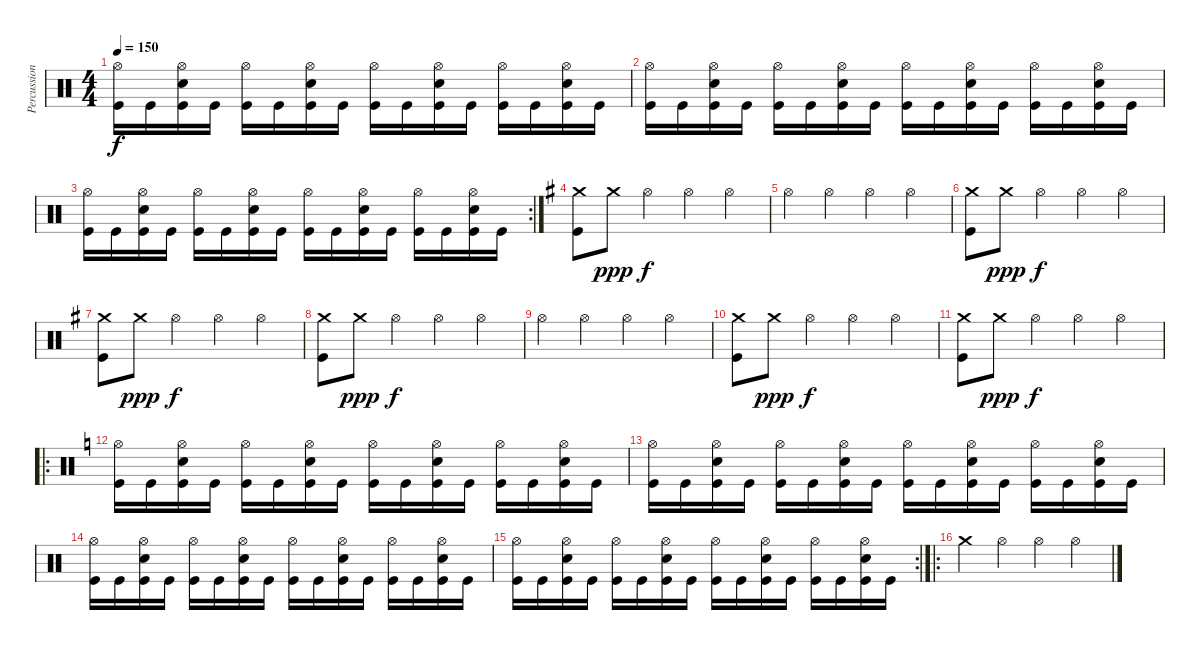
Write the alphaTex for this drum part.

\track ("Percussion" "Percussion") {instrument percussion}
\staff {score}
\articulation defaults
\ts (4 4)
\tempo 150
\clef neutral
\ks c
("Hi-Hat (open)" "Kick (hit)").16{dy f} "Kick (hit)".16 ("Hi-Hat (open)" "Snare (hit) 2" "Kick (hit)").16 "Kick (hit)".16 ("Hi-Hat (open)" "Kick (hit)").16 "Kick (hit)".16 ("Hi-Hat (open)" "Snare (hit) 2" "Kick (hit)").16 "Kick (hit)".16 ("Hi-Hat (open)" "Kick (hit)").16 "Kick (hit)".16 ("Hi-Hat (open)" "Snare (hit) 2" "Kick (hit)").16 "Kick (hit)".16 ("Hi-Hat (open)" "Kick (hit)").16 "Kick (hit)".16 ("Hi-Hat (open)" "Snare (hit) 2" "Kick (hit)").16 "Kick (hit)".16 |
("Hi-Hat (open)" "Kick (hit)").16 "Kick (hit)".16 ("Hi-Hat (open)" "Snare (hit) 2" "Kick (hit)").16 "Kick (hit)".16 ("Hi-Hat (open)" "Kick (hit)").16 "Kick (hit)".16 ("Hi-Hat (open)" "Snare (hit) 2" "Kick (hit)").16 "Kick (hit)".16 ("Hi-Hat (open)" "Kick (hit)").16 "Kick (hit)".16 ("Hi-Hat (open)" "Snare (hit) 2" "Kick (hit)").16 "Kick (hit)".16 ("Hi-Hat (open)" "Kick (hit)").16 "Kick (hit)".16 ("Hi-Hat (open)" "Snare (hit) 2" "Kick (hit)").16 "Kick (hit)".16 |
\rc 2
("Hi-Hat (open)" "Kick (hit)").16 "Kick (hit)".16 ("Hi-Hat (open)" "Snare (hit) 2" "Kick (hit)").16 "Kick (hit)".16 ("Hi-Hat (open)" "Kick (hit)").16 "Kick (hit)".16 ("Hi-Hat (open)" "Snare (hit) 2" "Kick (hit)").16 "Kick (hit)".16 ("Hi-Hat (open)" "Kick (hit)").16 "Kick (hit)".16 ("Hi-Hat (open)" "Snare (hit) 2" "Kick (hit)").16 "Kick (hit)".16 ("Hi-Hat (open)" "Kick (hit)").16 "Kick (hit)".16 ("Hi-Hat (open)" "Snare (hit) 2" "Kick (hit)").16 "Kick (hit)".16 |
\ks g
("Crash medium (hit)" "Kick (hit)").8 "Crash medium (hit)".8{dy ppp} "Hi-Hat (open)".4{dy f} "Hi-Hat (open)".4 "Hi-Hat (open)".4 |
"Hi-Hat (open)".4 "Hi-Hat (open)".4 "Hi-Hat (open)".4 "Hi-Hat (open)".4 |
("Crash medium (hit)" "Kick (hit)").8 "Crash medium (hit)".8{dy ppp} "Hi-Hat (open)".4{dy f} "Hi-Hat (open)".4 "Hi-Hat (open)".4 |
("Crash medium (hit)" "Kick (hit)").8 "Crash medium (hit)".8{dy ppp} "Hi-Hat (open)".4{dy f} "Hi-Hat (open)".4 "Hi-Hat (open)".4 |
("Crash medium (hit)" "Kick (hit)").8 "Crash medium (hit)".8{dy ppp} "Hi-Hat (open)".4{dy f} "Hi-Hat (open)".4 "Hi-Hat (open)".4 |
"Hi-Hat (open)".4 "Hi-Hat (open)".4 "Hi-Hat (open)".4 "Hi-Hat (open)".4 |
("Crash medium (hit)" "Kick (hit)").8 "Crash medium (hit)".8{dy ppp} "Hi-Hat (open)".4{dy f} "Hi-Hat (open)".4 "Hi-Hat (open)".4 |
("Crash medium (hit)" "Kick (hit)").8 "Crash medium (hit)".8{dy ppp} "Hi-Hat (open)".4{dy f} "Hi-Hat (open)".4 "Hi-Hat (open)".4 |
\ro
\ks c
("Hi-Hat (open)" "Kick (hit)").16 "Kick (hit)".16 ("Hi-Hat (open)" "Snare (hit) 2" "Kick (hit)").16 "Kick (hit)".16 ("Hi-Hat (open)" "Kick (hit)").16 "Kick (hit)".16 ("Hi-Hat (open)" "Snare (hit) 2" "Kick (hit)").16 "Kick (hit)".16 ("Hi-Hat (open)" "Kick (hit)").16 "Kick (hit)".16 ("Hi-Hat (open)" "Snare (hit) 2" "Kick (hit)").16 "Kick (hit)".16 ("Hi-Hat (open)" "Kick (hit)").16 "Kick (hit)".16 ("Hi-Hat (open)" "Snare (hit) 2" "Kick (hit)").16 "Kick (hit)".16 |
("Hi-Hat (open)" "Kick (hit)").16 "Kick (hit)".16 ("Hi-Hat (open)" "Snare (hit) 2" "Kick (hit)").16 "Kick (hit)".16 ("Hi-Hat (open)" "Kick (hit)").16 "Kick (hit)".16 ("Hi-Hat (open)" "Snare (hit) 2" "Kick (hit)").16 "Kick (hit)".16 ("Hi-Hat (open)" "Kick (hit)").16 "Kick (hit)".16 ("Hi-Hat (open)" "Snare (hit) 2" "Kick (hit)").16 "Kick (hit)".16 ("Hi-Hat (open)" "Kick (hit)").16 "Kick (hit)".16 ("Hi-Hat (open)" "Snare (hit) 2" "Kick (hit)").16 "Kick (hit)".16 |
("Hi-Hat (open)" "Kick (hit)").16 "Kick (hit)".16 ("Hi-Hat (open)" "Snare (hit) 2" "Kick (hit)").16 "Kick (hit)".16 ("Hi-Hat (open)" "Kick (hit)").16 "Kick (hit)".16 ("Hi-Hat (open)" "Snare (hit) 2" "Kick (hit)").16 "Kick (hit)".16 ("Hi-Hat (open)" "Kick (hit)").16 "Kick (hit)".16 ("Hi-Hat (open)" "Snare (hit) 2" "Kick (hit)").16 "Kick (hit)".16 ("Hi-Hat (open)" "Kick (hit)").16 "Kick (hit)".16 ("Hi-Hat (open)" "Snare (hit) 2" "Kick (hit)").16 "Kick (hit)".16 |
\rc 2
("Hi-Hat (open)" "Kick (hit)").16 "Kick (hit)".16 ("Hi-Hat (open)" "Snare (hit) 2" "Kick (hit)").16 "Kick (hit)".16 ("Hi-Hat (open)" "Kick (hit)").16 "Kick (hit)".16 ("Hi-Hat (open)" "Snare (hit) 2" "Kick (hit)").16 "Kick (hit)".16 ("Hi-Hat (open)" "Kick (hit)").16 "Kick (hit)".16 ("Hi-Hat (open)" "Snare (hit) 2" "Kick (hit)").16 "Kick (hit)".16 ("Hi-Hat (open)" "Kick (hit)").16 "Kick (hit)".16 ("Hi-Hat (open)" "Snare (hit) 2" "Kick (hit)").16 "Kick (hit)".16 |
\ro "Crash medium (hit)".4 "Hi-Hat (open)".4 "Hi-Hat (open)".4 "Hi-Hat (open)".4
